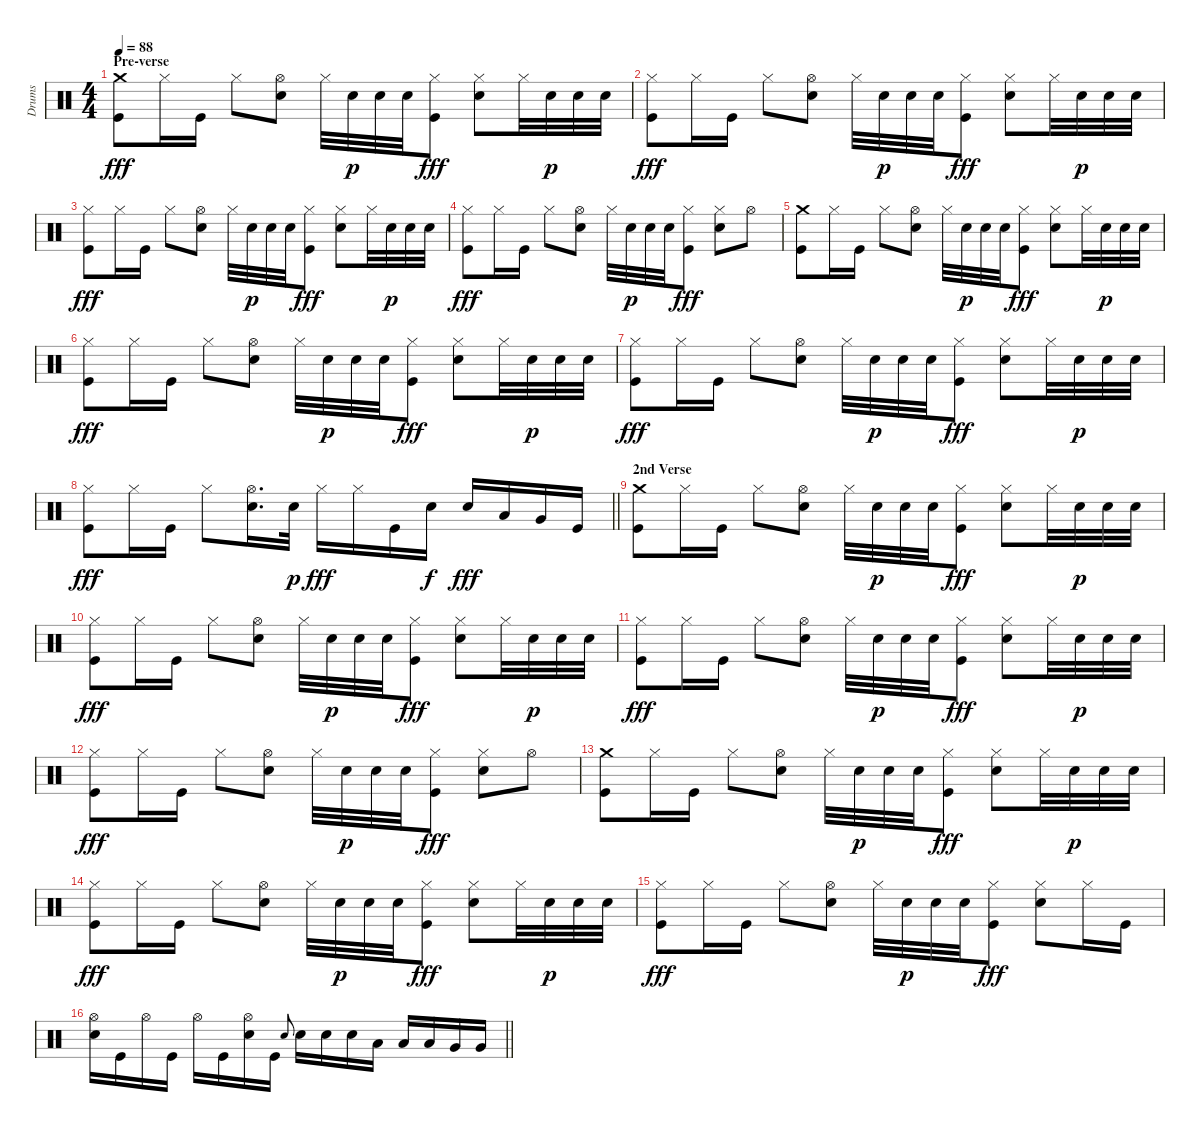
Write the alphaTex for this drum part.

\track ("Drums" "Drums") {instrument percussion}
\staff {score}
\articulation defaults
\ts (4 4)
\section ("" "Pre-verse")
\tempo 88
\clef neutral
\ks c
("Crash medium (hit)" "Kick (hit)").8{dy fff} "Hi-Hat (closed)".16 "Kick (hit)".16 "Hi-Hat (closed)".8 ("Hi-Hat (open)" "Snare (hit) 2").8 "Hi-Hat (closed)".32 "Snare (hit) 2".32{dy p} "Snare (hit) 2".32 "Snare (hit) 2".32 ("Hi-Hat (closed)" "Kick (hit)").8{dy fff} ("Hi-Hat (closed)" "Snare (hit) 2").8 "Hi-Hat (closed)".32 "Snare (hit) 2".32{dy p} "Snare (hit) 2".32 "Snare (hit) 2".32 |
("Hi-Hat (closed)" "Kick (hit)").8{dy fff} "Hi-Hat (closed)".16 "Kick (hit)".16 "Hi-Hat (closed)".8 ("Hi-Hat (open)" "Snare (hit) 2").8 "Hi-Hat (closed)".32 "Snare (hit) 2".32{dy p} "Snare (hit) 2".32 "Snare (hit) 2".32 ("Hi-Hat (closed)" "Kick (hit)").8{dy fff} ("Hi-Hat (closed)" "Snare (hit) 2").8 "Hi-Hat (closed)".32 "Snare (hit) 2".32{dy p} "Snare (hit) 2".32 "Snare (hit) 2".32 |
("Hi-Hat (closed)" "Kick (hit)").8{dy fff} "Hi-Hat (closed)".16 "Kick (hit)".16 "Hi-Hat (closed)".8 ("Hi-Hat (open)" "Snare (hit) 2").8 "Hi-Hat (closed)".32 "Snare (hit) 2".32{dy p} "Snare (hit) 2".32 "Snare (hit) 2".32 ("Hi-Hat (closed)" "Kick (hit)").8{dy fff} ("Hi-Hat (closed)" "Snare (hit) 2").8 "Hi-Hat (closed)".32 "Snare (hit) 2".32{dy p} "Snare (hit) 2".32 "Snare (hit) 2".32 |
("Hi-Hat (closed)" "Kick (hit)").8{dy fff} "Hi-Hat (closed)".16 "Kick (hit)".16 "Hi-Hat (closed)".8 ("Hi-Hat (open)" "Snare (hit) 2").8 "Hi-Hat (closed)".32 "Snare (hit) 2".32{dy p} "Snare (hit) 2".32 "Snare (hit) 2".32 ("Hi-Hat (closed)" "Kick (hit)").8{dy fff} ("Hi-Hat (closed)" "Snare (hit) 2").8 "Hi-Hat (open)".8 |
("Crash medium (hit)" "Kick (hit)").8 "Hi-Hat (closed)".16 "Kick (hit)".16 "Hi-Hat (closed)".8 ("Hi-Hat (open)" "Snare (hit) 2").8 "Hi-Hat (closed)".32 "Snare (hit) 2".32{dy p} "Snare (hit) 2".32 "Snare (hit) 2".32 ("Hi-Hat (closed)" "Kick (hit)").8{dy fff} ("Hi-Hat (closed)" "Snare (hit) 2").8 "Hi-Hat (closed)".32 "Snare (hit) 2".32{dy p} "Snare (hit) 2".32 "Snare (hit) 2".32 |
("Hi-Hat (closed)" "Kick (hit)").8{dy fff} "Hi-Hat (closed)".16 "Kick (hit)".16 "Hi-Hat (closed)".8 ("Hi-Hat (open)" "Snare (hit) 2").8 "Hi-Hat (closed)".32 "Snare (hit) 2".32{dy p} "Snare (hit) 2".32 "Snare (hit) 2".32 ("Hi-Hat (closed)" "Kick (hit)").8{dy fff} ("Hi-Hat (closed)" "Snare (hit) 2").8 "Hi-Hat (closed)".32 "Snare (hit) 2".32{dy p} "Snare (hit) 2".32 "Snare (hit) 2".32 |
("Hi-Hat (closed)" "Kick (hit)").8{dy fff} "Hi-Hat (closed)".16 "Kick (hit)".16 "Hi-Hat (closed)".8 ("Hi-Hat (open)" "Snare (hit) 2").8 "Hi-Hat (closed)".32 "Snare (hit) 2".32{dy p} "Snare (hit) 2".32 "Snare (hit) 2".32 ("Hi-Hat (closed)" "Kick (hit)").8{dy fff} ("Hi-Hat (closed)" "Snare (hit) 2").8 "Hi-Hat (closed)".32 "Snare (hit) 2".32{dy p} "Snare (hit) 2".32 "Snare (hit) 2".32 |
\barLineRight lightlight
("Hi-Hat (closed)" "Kick (hit)").8{dy fff} "Hi-Hat (closed)".16 "Kick (hit)".16 "Hi-Hat (closed)".8 ("Hi-Hat (open)" "Snare (hit) 2").16{d} "Snare (hit) 2".32{dy p} "Hi-Hat (closed)".16{dy fff} "Hi-Hat (closed)".16 "Kick (hit)".16 "Snare (hit) 2".16{dy f} "Snare (hit) 2".16{dy fff} "Low Tom (hit)".16 "Very Low Tom (hit)".16 "Kick (hit)".16 |
\section ("" "2nd Verse")
("Crash medium (hit)" "Kick (hit)").8 "Hi-Hat (closed)".16 "Kick (hit)".16 "Hi-Hat (closed)".8 ("Hi-Hat (open)" "Snare (hit) 2").8 "Hi-Hat (closed)".32 "Snare (hit) 2".32{dy p} "Snare (hit) 2".32 "Snare (hit) 2".32 ("Hi-Hat (closed)" "Kick (hit)").8{dy fff} ("Hi-Hat (closed)" "Snare (hit) 2").8 "Hi-Hat (closed)".32 "Snare (hit) 2".32{dy p} "Snare (hit) 2".32 "Snare (hit) 2".32 |
("Hi-Hat (closed)" "Kick (hit)").8{dy fff} "Hi-Hat (closed)".16 "Kick (hit)".16 "Hi-Hat (closed)".8 ("Hi-Hat (open)" "Snare (hit) 2").8 "Hi-Hat (closed)".32 "Snare (hit) 2".32{dy p} "Snare (hit) 2".32 "Snare (hit) 2".32 ("Hi-Hat (closed)" "Kick (hit)").8{dy fff} ("Hi-Hat (closed)" "Snare (hit) 2").8 "Hi-Hat (closed)".32 "Snare (hit) 2".32{dy p} "Snare (hit) 2".32 "Snare (hit) 2".32 |
("Hi-Hat (closed)" "Kick (hit)").8{dy fff} "Hi-Hat (closed)".16 "Kick (hit)".16 "Hi-Hat (closed)".8 ("Hi-Hat (open)" "Snare (hit) 2").8 "Hi-Hat (closed)".32 "Snare (hit) 2".32{dy p} "Snare (hit) 2".32 "Snare (hit) 2".32 ("Hi-Hat (closed)" "Kick (hit)").8{dy fff} ("Hi-Hat (closed)" "Snare (hit) 2").8 "Hi-Hat (closed)".32 "Snare (hit) 2".32{dy p} "Snare (hit) 2".32 "Snare (hit) 2".32 |
("Hi-Hat (closed)" "Kick (hit)").8{dy fff} "Hi-Hat (closed)".16 "Kick (hit)".16 "Hi-Hat (closed)".8 ("Hi-Hat (open)" "Snare (hit) 2").8 "Hi-Hat (closed)".32 "Snare (hit) 2".32{dy p} "Snare (hit) 2".32 "Snare (hit) 2".32 ("Hi-Hat (closed)" "Kick (hit)").8{dy fff} ("Hi-Hat (closed)" "Snare (hit) 2").8 "Hi-Hat (open)".8 |
("Crash medium (hit)" "Kick (hit)").8 "Hi-Hat (closed)".16 "Kick (hit)".16 "Hi-Hat (closed)".8 ("Hi-Hat (open)" "Snare (hit) 2").8 "Hi-Hat (closed)".32 "Snare (hit) 2".32{dy p} "Snare (hit) 2".32 "Snare (hit) 2".32 ("Hi-Hat (closed)" "Kick (hit)").8{dy fff} ("Hi-Hat (closed)" "Snare (hit) 2").8 "Hi-Hat (closed)".32 "Snare (hit) 2".32{dy p} "Snare (hit) 2".32 "Snare (hit) 2".32 |
("Hi-Hat (closed)" "Kick (hit)").8{dy fff} "Hi-Hat (closed)".16 "Kick (hit)".16 "Hi-Hat (closed)".8 ("Hi-Hat (open)" "Snare (hit) 2").8 "Hi-Hat (closed)".32 "Snare (hit) 2".32{dy p} "Snare (hit) 2".32 "Snare (hit) 2".32 ("Hi-Hat (closed)" "Kick (hit)").8{dy fff} ("Hi-Hat (closed)" "Snare (hit) 2").8 "Hi-Hat (closed)".32 "Snare (hit) 2".32{dy p} "Snare (hit) 2".32 "Snare (hit) 2".32 |
("Hi-Hat (closed)" "Kick (hit)").8{dy fff} "Hi-Hat (closed)".16 "Kick (hit)".16 "Hi-Hat (closed)".8 ("Hi-Hat (open)" "Snare (hit) 2").8 "Hi-Hat (closed)".32 "Snare (hit) 2".32{dy p} "Snare (hit) 2".32 "Snare (hit) 2".32 ("Hi-Hat (closed)" "Kick (hit)").8{dy fff} ("Hi-Hat (closed)" "Snare (hit) 2").8 "Hi-Hat (closed)".16 "Kick (hit)".16 |
\barLineRight lightlight
("Hi-Hat (open)" "Snare (hit) 2").16 "Kick (hit)".16 "Hi-Hat (open)".16 "Kick (hit)".16 "Hi-Hat (open)".16 "Kick (hit)".16 ("Hi-Hat (open)" "Snare (hit) 2").16 "Kick (hit)".16 "Snare (hit) 2".8{gr onbeat} "Snare (hit) 2".16 "Snare (hit) 2".16 "Snare (hit) 2".16 "Low Tom (hit)".16 "Low Tom (hit)".16 "Low Tom (hit)".16 "Very Low Tom (hit)".16 "Very Low Tom (hit)".16
